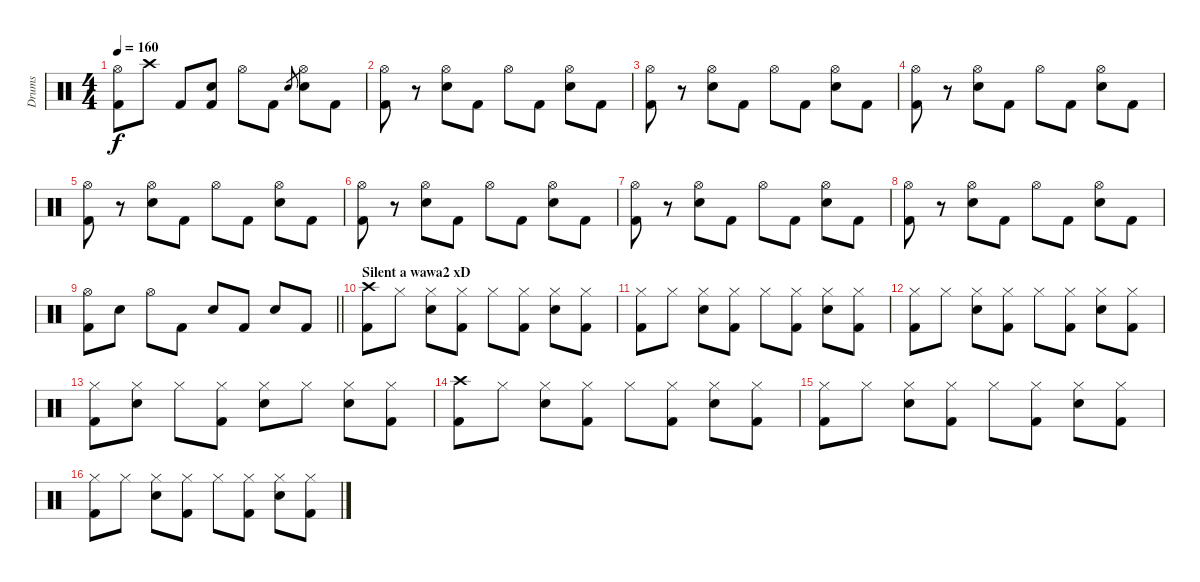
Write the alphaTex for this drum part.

\track ("Drums" "Drums") {instrument percussion}
\staff {score}
\articulation defaults
\ts (4 4)
\tempo 160
\clef neutral
\ks c
("Hi-Hat (open)" "Kick (hit) 2").8{dy f} "Crash high (hit)".8 "Kick (hit) 2".8 ("Electric Snare (hit)" "Kick (hit) 2").8 "Hi-Hat (open)".8 "Kick (hit) 2".8 "Electric Snare (hit)".8{gr} ("Hi-Hat (open)" "Electric Snare (hit)").8 "Kick (hit) 2".8 |
("Hi-Hat (open)" "Kick (hit) 2").8 r.8 ("Hi-Hat (open)" "Electric Snare (hit)").8 "Kick (hit) 2".8 "Hi-Hat (open)".8 "Kick (hit) 2".8 ("Hi-Hat (open)" "Electric Snare (hit)").8 "Kick (hit) 2".8 |
("Hi-Hat (open)" "Kick (hit) 2").8 r.8 ("Hi-Hat (open)" "Electric Snare (hit)").8 "Kick (hit) 2".8 "Hi-Hat (open)".8 "Kick (hit) 2".8 ("Hi-Hat (open)" "Electric Snare (hit)").8 "Kick (hit) 2".8 |
("Hi-Hat (open)" "Kick (hit) 2").8 r.8 ("Hi-Hat (open)" "Electric Snare (hit)").8 "Kick (hit) 2".8 "Hi-Hat (open)".8 "Kick (hit) 2".8 ("Hi-Hat (open)" "Electric Snare (hit)").8 "Kick (hit) 2".8 |
("Hi-Hat (open)" "Kick (hit) 2").8 r.8 ("Hi-Hat (open)" "Electric Snare (hit)").8 "Kick (hit) 2".8 "Hi-Hat (open)".8 "Kick (hit) 2".8 ("Hi-Hat (open)" "Electric Snare (hit)").8 "Kick (hit) 2".8 |
("Hi-Hat (open)" "Kick (hit) 2").8 r.8 ("Hi-Hat (open)" "Electric Snare (hit)").8 "Kick (hit) 2".8 "Hi-Hat (open)".8 "Kick (hit) 2".8 ("Hi-Hat (open)" "Electric Snare (hit)").8 "Kick (hit) 2".8 |
("Hi-Hat (open)" "Kick (hit) 2").8 r.8 ("Hi-Hat (open)" "Electric Snare (hit)").8 "Kick (hit) 2".8 "Hi-Hat (open)".8 "Kick (hit) 2".8 ("Hi-Hat (open)" "Electric Snare (hit)").8 "Kick (hit) 2".8 |
("Hi-Hat (open)" "Kick (hit) 2").8 r.8 ("Hi-Hat (open)" "Electric Snare (hit)").8 "Kick (hit) 2".8 "Hi-Hat (open)".8 "Kick (hit) 2".8 ("Hi-Hat (open)" "Electric Snare (hit)").8 "Kick (hit) 2".8 |
\barLineRight lightlight
("Hi-Hat (open)" "Kick (hit) 2").8 "Electric Snare (hit)".8 "Hi-Hat (open)".8 "Kick (hit) 2".8 "Electric Snare (hit)".8 "Kick (hit) 2".8 "Electric Snare (hit)".8 "Kick (hit) 2".8 |
\section ("" "Silent a wawa2 xD")
("Crash high (hit)" "Kick (hit) 2").8 "Hi-Hat (closed)".8 ("Hi-Hat (closed)" "Electric Snare (hit)").8 ("Hi-Hat (closed)" "Kick (hit) 2").8 "Hi-Hat (closed)".8 ("Hi-Hat (closed)" "Kick (hit) 2").8 ("Hi-Hat (closed)" "Electric Snare (hit)").8 ("Hi-Hat (closed)" "Kick (hit) 2").8 |
("Hi-Hat (closed)" "Kick (hit) 2").8 "Hi-Hat (closed)".8 ("Hi-Hat (closed)" "Electric Snare (hit)").8 ("Hi-Hat (closed)" "Kick (hit) 2").8 "Hi-Hat (closed)".8 ("Hi-Hat (closed)" "Kick (hit) 2").8 ("Hi-Hat (closed)" "Electric Snare (hit)").8 ("Hi-Hat (closed)" "Kick (hit) 2").8 |
("Hi-Hat (closed)" "Kick (hit) 2").8 "Hi-Hat (closed)".8 ("Hi-Hat (closed)" "Electric Snare (hit)").8 ("Hi-Hat (closed)" "Kick (hit) 2").8 "Hi-Hat (closed)".8 ("Hi-Hat (closed)" "Kick (hit) 2").8 ("Hi-Hat (closed)" "Electric Snare (hit)").8 ("Hi-Hat (closed)" "Kick (hit) 2").8 |
("Hi-Hat (closed)" "Kick (hit) 2").8 ("Hi-Hat (closed)" "Electric Snare (hit)").8 "Hi-Hat (closed)".8 ("Hi-Hat (closed)" "Kick (hit) 2").8 ("Hi-Hat (closed)" "Electric Snare (hit)").8 "Hi-Hat (closed)".8 ("Hi-Hat (closed)" "Electric Snare (hit)").8 ("Hi-Hat (closed)" "Kick (hit) 2").8 |
("Crash high (hit)" "Kick (hit) 2").8 "Hi-Hat (closed)".8 ("Hi-Hat (closed)" "Electric Snare (hit)").8 ("Hi-Hat (closed)" "Kick (hit) 2").8 "Hi-Hat (closed)".8 ("Hi-Hat (closed)" "Kick (hit) 2").8 ("Hi-Hat (closed)" "Electric Snare (hit)").8 ("Hi-Hat (closed)" "Kick (hit) 2").8 |
("Hi-Hat (closed)" "Kick (hit) 2").8 "Hi-Hat (closed)".8 ("Hi-Hat (closed)" "Electric Snare (hit)").8 ("Hi-Hat (closed)" "Kick (hit) 2").8 "Hi-Hat (closed)".8 ("Hi-Hat (closed)" "Kick (hit) 2").8 ("Hi-Hat (closed)" "Electric Snare (hit)").8 ("Hi-Hat (closed)" "Kick (hit) 2").8 |
("Hi-Hat (closed)" "Kick (hit) 2").8 "Hi-Hat (closed)".8 ("Hi-Hat (closed)" "Electric Snare (hit)").8 ("Hi-Hat (closed)" "Kick (hit) 2").8 "Hi-Hat (closed)".8 ("Hi-Hat (closed)" "Kick (hit) 2").8 ("Hi-Hat (closed)" "Electric Snare (hit)").8 ("Hi-Hat (closed)" "Kick (hit) 2").8
